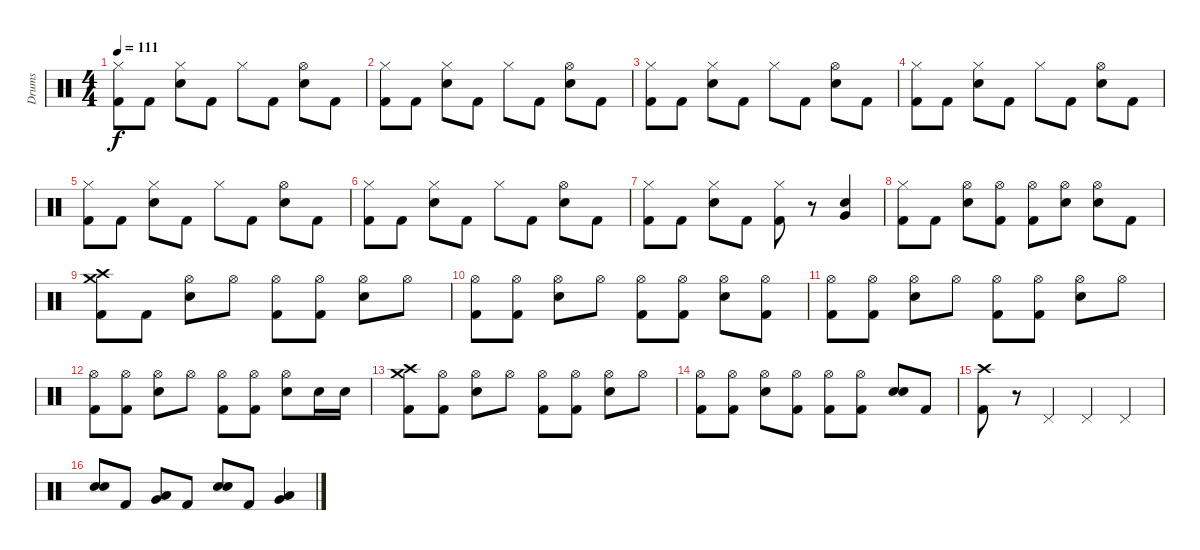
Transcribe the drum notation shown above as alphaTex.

\track ("Drums" "Drums") {instrument percussion}
\staff {score}
\articulation defaults
\ts (4 4)
\tempo 111
\clef neutral
\ks c
("Hi-Hat (closed)" "Kick (hit) 2").8{dy f} "Kick (hit) 2".8 ("Hi-Hat (closed)" "Snare (hit) 2").8 "Kick (hit) 2".8 "Hi-Hat (closed)".8 "Kick (hit) 2".8 ("Hi-Hat (open)" "Snare (hit) 2").8 "Kick (hit) 2".8 |
("Hi-Hat (closed)" "Kick (hit) 2").8 "Kick (hit) 2".8 ("Hi-Hat (closed)" "Snare (hit) 2").8 "Kick (hit) 2".8 "Hi-Hat (closed)".8 "Kick (hit) 2".8 ("Hi-Hat (open)" "Snare (hit) 2").8 "Kick (hit) 2".8 |
("Hi-Hat (closed)" "Kick (hit) 2").8 "Kick (hit) 2".8 ("Hi-Hat (closed)" "Snare (hit) 2").8 "Kick (hit) 2".8 "Hi-Hat (closed)".8 "Kick (hit) 2".8 ("Hi-Hat (open)" "Snare (hit) 2").8 "Kick (hit) 2".8 |
("Hi-Hat (closed)" "Kick (hit) 2").8 "Kick (hit) 2".8 ("Hi-Hat (closed)" "Snare (hit) 2").8 "Kick (hit) 2".8 "Hi-Hat (closed)".8 "Kick (hit) 2".8 ("Hi-Hat (open)" "Snare (hit) 2").8 "Kick (hit) 2".8 |
("Hi-Hat (closed)" "Kick (hit) 2").8 "Kick (hit) 2".8 ("Hi-Hat (closed)" "Snare (hit) 2").8 "Kick (hit) 2".8 "Hi-Hat (closed)".8 "Kick (hit) 2".8 ("Hi-Hat (open)" "Snare (hit) 2").8 "Kick (hit) 2".8 |
("Hi-Hat (closed)" "Kick (hit) 2").8 "Kick (hit) 2".8 ("Hi-Hat (closed)" "Snare (hit) 2").8 "Kick (hit) 2".8 "Hi-Hat (closed)".8 "Kick (hit) 2".8 ("Hi-Hat (open)" "Snare (hit) 2").8 "Kick (hit) 2".8 |
("Hi-Hat (closed)" "Kick (hit) 2").8 "Kick (hit) 2".8 ("Hi-Hat (closed)" "Snare (hit) 2").8 "Kick (hit) 2".8 ("Hi-Hat (closed)" "Kick (hit) 2").8 r.8 ("Snare (hit) 2" "Very Low Tom (hit)").4 |
("Hi-Hat (closed)" "Kick (hit) 2").8 "Kick (hit) 2".8 ("Hi-Hat (open)" "Snare (hit) 2").8 ("Hi-Hat (open)" "Kick (hit) 2").8 ("Hi-Hat (open)" "Kick (hit) 2").8 ("Hi-Hat (open)" "Snare (hit) 2").8 ("Hi-Hat (open)" "Snare (hit) 2").8 "Kick (hit) 2".8 |
("Crash high (hit)" "Crash medium (hit)" "Kick (hit) 2").8 "Kick (hit) 2".8 ("Hi-Hat (open)" "Snare (hit) 2").8 "Hi-Hat (open)".8 ("Hi-Hat (open)" "Kick (hit) 2").8 ("Hi-Hat (open)" "Kick (hit) 2").8 ("Hi-Hat (open)" "Snare (hit) 2").8 "Hi-Hat (open)".8 |
("Hi-Hat (open)" "Kick (hit) 2").8 ("Hi-Hat (open)" "Kick (hit) 2").8 ("Hi-Hat (open)" "Snare (hit) 2").8 "Hi-Hat (open)".8 ("Hi-Hat (open)" "Kick (hit) 2").8 ("Hi-Hat (open)" "Kick (hit) 2").8 ("Hi-Hat (open)" "Snare (hit) 2").8 ("Hi-Hat (open)" "Kick (hit) 2").8 |
("Hi-Hat (open)" "Kick (hit) 2").8 ("Hi-Hat (open)" "Kick (hit) 2").8 ("Hi-Hat (open)" "Snare (hit) 2").8 "Hi-Hat (open)".8 ("Hi-Hat (open)" "Kick (hit) 2").8 ("Hi-Hat (open)" "Kick (hit) 2").8 ("Hi-Hat (open)" "Snare (hit) 2").8 "Hi-Hat (open)".8 |
("Hi-Hat (open)" "Kick (hit) 2").8 ("Hi-Hat (open)" "Kick (hit) 2").8 ("Hi-Hat (open)" "Snare (hit) 2").8 "Hi-Hat (open)".8 ("Hi-Hat (open)" "Kick (hit) 2").8 ("Hi-Hat (open)" "Kick (hit) 2").8 ("Hi-Hat (open)" "Snare (hit) 2").8 "Snare (hit) 2".16 "Snare (hit) 2".16 |
("Crash high (hit)" "Crash medium (hit)" "Kick (hit) 2").8 ("Hi-Hat (open)" "Kick (hit) 2").8 ("Hi-Hat (open)" "Snare (hit) 2").8 "Hi-Hat (open)".8 ("Hi-Hat (open)" "Kick (hit) 2").8 ("Hi-Hat (open)" "Kick (hit) 2").8 ("Hi-Hat (open)" "Snare (hit) 2").8 "Hi-Hat (open)".8 |
("Hi-Hat (open)" "Kick (hit) 2").8 ("Hi-Hat (open)" "Kick (hit) 2").8 ("Hi-Hat (open)" "Snare (hit) 2").8 ("Hi-Hat (open)" "Kick (hit) 2").8 ("Hi-Hat (open)" "Kick (hit) 2").8 ("Hi-Hat (open)" "Kick (hit) 2").8 ("Snare (hit) 2" "Snare (hit) 2").8 "Kick (hit) 2".8 |
("Crash high (hit)" "Kick (hit) 2").8 r.8 "Pedal Hi-Hat (hit)".4 "Pedal Hi-Hat (hit)".4 "Pedal Hi-Hat (hit)".4 |
("Snare (hit) 2" "Snare (hit) 2").8 "Kick (hit) 2".8 ("Low Tom (hit)" "Very Low Tom (hit)").8 "Kick (hit) 2".8 ("Snare (hit) 2" "Snare (hit) 2").8 "Kick (hit) 2".8 ("Low Tom (hit)" "Very Low Tom (hit)").4
